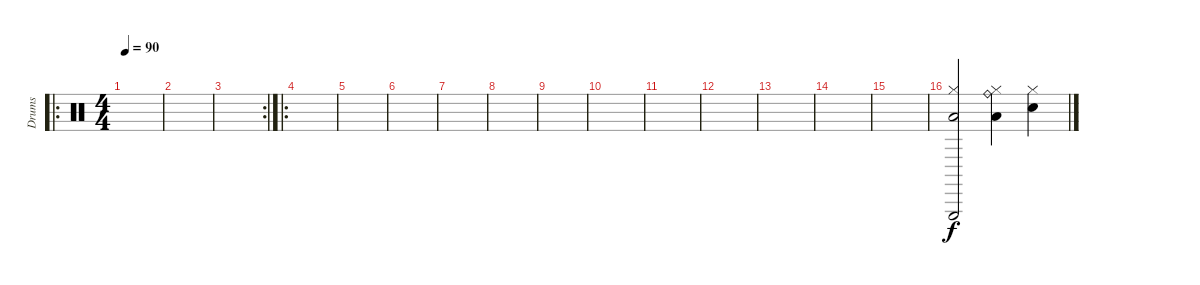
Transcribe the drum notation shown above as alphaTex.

\track ("Drums" "Drums") {instrument percussion}
\staff {score}
\articulation defaults
\ro
\ts (4 4)
\tempo 90
\clef neutral
\ks c
|
|
\rc 2
|
\ro
|
|
|
|
|
|
|
|
|
|
|
|
("Triangle (hit)" "Hi-Hat (closed)" "Low Floor Tom (hit)").2 ("Hi-Hat (closed)" "Ride (bell)" "Low Floor Tom (hit)").4 ("Hi-Hat (closed)" "Electric Snare (hit)").4
